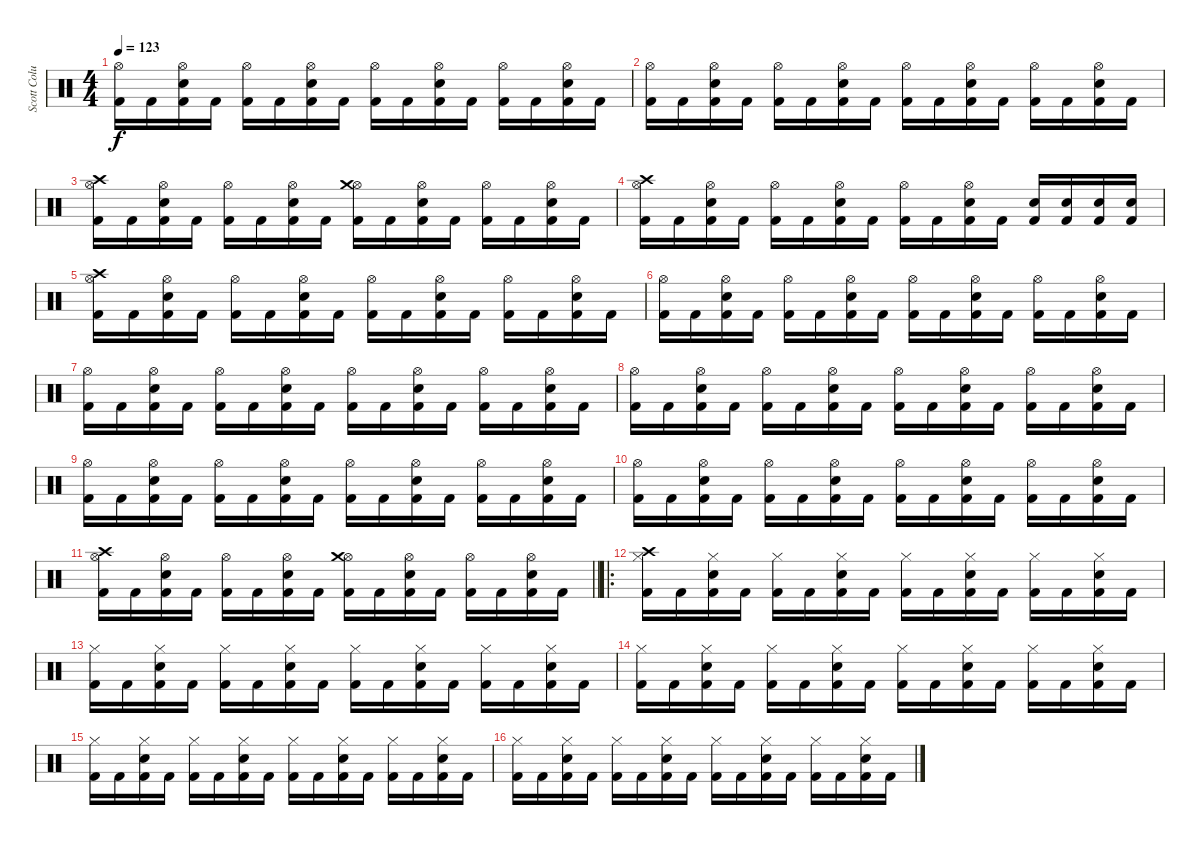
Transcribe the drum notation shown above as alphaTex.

\track ("Scott Columbus" "Scott Colu") {instrument percussion}
\staff {score}
\articulation defaults
\ts (4 4)
\tempo 123
\clef neutral
\ks c
("Kick (hit) 2" "Hi-Hat (open)").16{dy f} "Kick (hit) 2".16 ("Kick (hit) 2" "Electric Snare (hit)" "Hi-Hat (open)").16 "Kick (hit) 2".16 ("Kick (hit) 2" "Hi-Hat (open)").16 "Kick (hit) 2".16 ("Kick (hit) 2" "Electric Snare (hit)" "Hi-Hat (open)").16 "Kick (hit) 2".16 ("Kick (hit) 2" "Hi-Hat (open)").16 "Kick (hit) 2".16 ("Kick (hit) 2" "Electric Snare (hit)" "Hi-Hat (open)").16 "Kick (hit) 2".16 ("Kick (hit) 2" "Hi-Hat (open)").16 "Kick (hit) 2".16 ("Kick (hit) 2" "Electric Snare (hit)" "Hi-Hat (open)").16 "Kick (hit) 2".16 |
("Kick (hit) 2" "Hi-Hat (open)").16 "Kick (hit) 2".16 ("Kick (hit) 2" "Electric Snare (hit)" "Hi-Hat (open)").16 "Kick (hit) 2".16 ("Kick (hit) 2" "Hi-Hat (open)").16 "Kick (hit) 2".16 ("Kick (hit) 2" "Electric Snare (hit)" "Hi-Hat (open)").16 "Kick (hit) 2".16 ("Kick (hit) 2" "Hi-Hat (open)").16 "Kick (hit) 2".16 ("Kick (hit) 2" "Electric Snare (hit)" "Hi-Hat (open)").16 "Kick (hit) 2".16 ("Kick (hit) 2" "Hi-Hat (open)").16 "Kick (hit) 2".16 ("Kick (hit) 2" "Electric Snare (hit)" "Hi-Hat (open)").16 "Kick (hit) 2".16 |
("Kick (hit) 2" "Hi-Hat (open)" "Crash high (hit)").16 "Kick (hit) 2".16 ("Kick (hit) 2" "Electric Snare (hit)" "Hi-Hat (open)").16 "Kick (hit) 2".16 ("Kick (hit) 2" "Hi-Hat (open)").16 "Kick (hit) 2".16 ("Kick (hit) 2" "Electric Snare (hit)" "Hi-Hat (open)").16 "Kick (hit) 2".16 ("Kick (hit) 2" "Hi-Hat (open)" "Crash medium (hit)").16 "Kick (hit) 2".16 ("Kick (hit) 2" "Electric Snare (hit)" "Hi-Hat (open)").16 "Kick (hit) 2".16 ("Kick (hit) 2" "Hi-Hat (open)").16 "Kick (hit) 2".16 ("Kick (hit) 2" "Electric Snare (hit)" "Hi-Hat (open)").16 "Kick (hit) 2".16 |
("Kick (hit) 2" "Hi-Hat (open)" "Crash high (hit)").16 "Kick (hit) 2".16 ("Kick (hit) 2" "Electric Snare (hit)" "Hi-Hat (open)").16 "Kick (hit) 2".16 ("Kick (hit) 2" "Hi-Hat (open)").16 "Kick (hit) 2".16 ("Kick (hit) 2" "Electric Snare (hit)" "Hi-Hat (open)").16 "Kick (hit) 2".16 ("Kick (hit) 2" "Hi-Hat (open)").16 "Kick (hit) 2".16 ("Kick (hit) 2" "Electric Snare (hit)" "Hi-Hat (open)").16 "Kick (hit) 2".16 ("Kick (hit) 2" "Electric Snare (hit)").16 ("Kick (hit) 2" "Electric Snare (hit)").16 ("Kick (hit) 2" "Electric Snare (hit)").16 ("Kick (hit) 2" "Electric Snare (hit)").16 |
("Kick (hit) 2" "Hi-Hat (open)" "Crash high (hit)").16 "Kick (hit) 2".16 ("Kick (hit) 2" "Electric Snare (hit)" "Hi-Hat (open)").16 "Kick (hit) 2".16 ("Kick (hit) 2" "Hi-Hat (open)").16 "Kick (hit) 2".16 ("Kick (hit) 2" "Electric Snare (hit)" "Hi-Hat (open)").16 "Kick (hit) 2".16 ("Kick (hit) 2" "Hi-Hat (open)").16 "Kick (hit) 2".16 ("Kick (hit) 2" "Electric Snare (hit)" "Hi-Hat (open)").16 "Kick (hit) 2".16 ("Kick (hit) 2" "Hi-Hat (open)").16 "Kick (hit) 2".16 ("Kick (hit) 2" "Electric Snare (hit)" "Hi-Hat (open)").16 "Kick (hit) 2".16 |
("Kick (hit) 2" "Hi-Hat (open)").16 "Kick (hit) 2".16 ("Kick (hit) 2" "Electric Snare (hit)" "Hi-Hat (open)").16 "Kick (hit) 2".16 ("Kick (hit) 2" "Hi-Hat (open)").16 "Kick (hit) 2".16 ("Kick (hit) 2" "Electric Snare (hit)" "Hi-Hat (open)").16 "Kick (hit) 2".16 ("Kick (hit) 2" "Hi-Hat (open)").16 "Kick (hit) 2".16 ("Kick (hit) 2" "Electric Snare (hit)" "Hi-Hat (open)").16 "Kick (hit) 2".16 ("Kick (hit) 2" "Hi-Hat (open)").16 "Kick (hit) 2".16 ("Kick (hit) 2" "Electric Snare (hit)" "Hi-Hat (open)").16 "Kick (hit) 2".16 |
("Kick (hit) 2" "Hi-Hat (open)").16 "Kick (hit) 2".16 ("Kick (hit) 2" "Electric Snare (hit)" "Hi-Hat (open)").16 "Kick (hit) 2".16 ("Kick (hit) 2" "Hi-Hat (open)").16 "Kick (hit) 2".16 ("Kick (hit) 2" "Electric Snare (hit)" "Hi-Hat (open)").16 "Kick (hit) 2".16 ("Kick (hit) 2" "Hi-Hat (open)").16 "Kick (hit) 2".16 ("Kick (hit) 2" "Electric Snare (hit)" "Hi-Hat (open)").16 "Kick (hit) 2".16 ("Kick (hit) 2" "Hi-Hat (open)").16 "Kick (hit) 2".16 ("Kick (hit) 2" "Electric Snare (hit)" "Hi-Hat (open)").16 "Kick (hit) 2".16 |
("Kick (hit) 2" "Hi-Hat (open)").16 "Kick (hit) 2".16 ("Kick (hit) 2" "Electric Snare (hit)" "Hi-Hat (open)").16 "Kick (hit) 2".16 ("Kick (hit) 2" "Hi-Hat (open)").16 "Kick (hit) 2".16 ("Kick (hit) 2" "Electric Snare (hit)" "Hi-Hat (open)").16 "Kick (hit) 2".16 ("Kick (hit) 2" "Hi-Hat (open)").16 "Kick (hit) 2".16 ("Kick (hit) 2" "Electric Snare (hit)" "Hi-Hat (open)").16 "Kick (hit) 2".16 ("Kick (hit) 2" "Hi-Hat (open)").16 "Kick (hit) 2".16 ("Kick (hit) 2" "Electric Snare (hit)" "Hi-Hat (open)").16 "Kick (hit) 2".16 |
("Kick (hit) 2" "Hi-Hat (open)").16 "Kick (hit) 2".16 ("Kick (hit) 2" "Electric Snare (hit)" "Hi-Hat (open)").16 "Kick (hit) 2".16 ("Kick (hit) 2" "Hi-Hat (open)").16 "Kick (hit) 2".16 ("Kick (hit) 2" "Electric Snare (hit)" "Hi-Hat (open)").16 "Kick (hit) 2".16 ("Kick (hit) 2" "Hi-Hat (open)").16 "Kick (hit) 2".16 ("Kick (hit) 2" "Electric Snare (hit)" "Hi-Hat (open)").16 "Kick (hit) 2".16 ("Kick (hit) 2" "Hi-Hat (open)").16 "Kick (hit) 2".16 ("Kick (hit) 2" "Electric Snare (hit)" "Hi-Hat (open)").16 "Kick (hit) 2".16 |
("Kick (hit) 2" "Hi-Hat (open)").16 "Kick (hit) 2".16 ("Kick (hit) 2" "Electric Snare (hit)" "Hi-Hat (open)").16 "Kick (hit) 2".16 ("Kick (hit) 2" "Hi-Hat (open)").16 "Kick (hit) 2".16 ("Kick (hit) 2" "Electric Snare (hit)" "Hi-Hat (open)").16 "Kick (hit) 2".16 ("Kick (hit) 2" "Hi-Hat (open)").16 "Kick (hit) 2".16 ("Kick (hit) 2" "Electric Snare (hit)" "Hi-Hat (open)").16 "Kick (hit) 2".16 ("Kick (hit) 2" "Hi-Hat (open)").16 "Kick (hit) 2".16 ("Kick (hit) 2" "Electric Snare (hit)" "Hi-Hat (open)").16 "Kick (hit) 2".16 |
\barLineRight lightlight
("Kick (hit) 2" "Hi-Hat (open)" "Crash high (hit)").16 "Kick (hit) 2".16 ("Kick (hit) 2" "Electric Snare (hit)" "Hi-Hat (open)").16 "Kick (hit) 2".16 ("Kick (hit) 2" "Hi-Hat (open)").16 "Kick (hit) 2".16 ("Kick (hit) 2" "Electric Snare (hit)" "Hi-Hat (open)").16 "Kick (hit) 2".16 ("Kick (hit) 2" "Hi-Hat (open)" "Crash medium (hit)").16 "Kick (hit) 2".16 ("Kick (hit) 2" "Electric Snare (hit)" "Hi-Hat (open)").16 "Kick (hit) 2".16 ("Kick (hit) 2" "Hi-Hat (open)").16 "Kick (hit) 2".16 ("Kick (hit) 2" "Electric Snare (hit)" "Hi-Hat (open)").16 "Kick (hit) 2".16 |
\ro
("Kick (hit) 2" "Hi-Hat (closed)" "Crash high (hit)").16 "Kick (hit) 2".16 ("Kick (hit) 2" "Electric Snare (hit)" "Hi-Hat (closed)").16 "Kick (hit) 2".16 ("Kick (hit) 2" "Hi-Hat (closed)").16 "Kick (hit) 2".16 ("Kick (hit) 2" "Electric Snare (hit)" "Hi-Hat (closed)").16 "Kick (hit) 2".16 ("Kick (hit) 2" "Hi-Hat (closed)").16 "Kick (hit) 2".16 ("Kick (hit) 2" "Electric Snare (hit)" "Hi-Hat (closed)").16 "Kick (hit) 2".16 ("Kick (hit) 2" "Hi-Hat (closed)").16 "Kick (hit) 2".16 ("Kick (hit) 2" "Electric Snare (hit)" "Hi-Hat (closed)").16 "Kick (hit) 2".16 |
("Kick (hit) 2" "Hi-Hat (closed)").16 "Kick (hit) 2".16 ("Kick (hit) 2" "Electric Snare (hit)" "Hi-Hat (closed)").16 "Kick (hit) 2".16 ("Kick (hit) 2" "Hi-Hat (closed)").16 "Kick (hit) 2".16 ("Kick (hit) 2" "Electric Snare (hit)" "Hi-Hat (closed)").16 "Kick (hit) 2".16 ("Kick (hit) 2" "Hi-Hat (closed)").16 "Kick (hit) 2".16 ("Kick (hit) 2" "Electric Snare (hit)" "Hi-Hat (closed)").16 "Kick (hit) 2".16 ("Kick (hit) 2" "Hi-Hat (closed)").16 "Kick (hit) 2".16 ("Kick (hit) 2" "Electric Snare (hit)" "Hi-Hat (closed)").16 "Kick (hit) 2".16 |
("Kick (hit) 2" "Hi-Hat (closed)").16 "Kick (hit) 2".16 ("Kick (hit) 2" "Electric Snare (hit)" "Hi-Hat (closed)").16 "Kick (hit) 2".16 ("Kick (hit) 2" "Hi-Hat (closed)").16 "Kick (hit) 2".16 ("Kick (hit) 2" "Electric Snare (hit)" "Hi-Hat (closed)").16 "Kick (hit) 2".16 ("Kick (hit) 2" "Hi-Hat (closed)").16 "Kick (hit) 2".16 ("Kick (hit) 2" "Electric Snare (hit)" "Hi-Hat (closed)").16 "Kick (hit) 2".16 ("Kick (hit) 2" "Hi-Hat (closed)").16 "Kick (hit) 2".16 ("Kick (hit) 2" "Electric Snare (hit)" "Hi-Hat (closed)").16 "Kick (hit) 2".16 |
("Kick (hit) 2" "Hi-Hat (closed)").16 "Kick (hit) 2".16 ("Kick (hit) 2" "Electric Snare (hit)" "Hi-Hat (closed)").16 "Kick (hit) 2".16 ("Kick (hit) 2" "Hi-Hat (closed)").16 "Kick (hit) 2".16 ("Kick (hit) 2" "Electric Snare (hit)" "Hi-Hat (closed)").16 "Kick (hit) 2".16 ("Kick (hit) 2" "Hi-Hat (closed)").16 "Kick (hit) 2".16 ("Kick (hit) 2" "Electric Snare (hit)" "Hi-Hat (closed)").16 "Kick (hit) 2".16 ("Kick (hit) 2" "Hi-Hat (closed)").16 "Kick (hit) 2".16 ("Kick (hit) 2" "Electric Snare (hit)" "Hi-Hat (closed)").16 "Kick (hit) 2".16 |
("Kick (hit) 2" "Hi-Hat (closed)").16 "Kick (hit) 2".16 ("Kick (hit) 2" "Electric Snare (hit)" "Hi-Hat (closed)").16 "Kick (hit) 2".16 ("Kick (hit) 2" "Hi-Hat (closed)").16 "Kick (hit) 2".16 ("Kick (hit) 2" "Electric Snare (hit)" "Hi-Hat (closed)").16 "Kick (hit) 2".16 ("Kick (hit) 2" "Hi-Hat (closed)").16 "Kick (hit) 2".16 ("Kick (hit) 2" "Electric Snare (hit)" "Hi-Hat (closed)").16 "Kick (hit) 2".16 ("Kick (hit) 2" "Hi-Hat (closed)").16 "Kick (hit) 2".16 ("Kick (hit) 2" "Electric Snare (hit)" "Hi-Hat (closed)").16 "Kick (hit) 2".16
